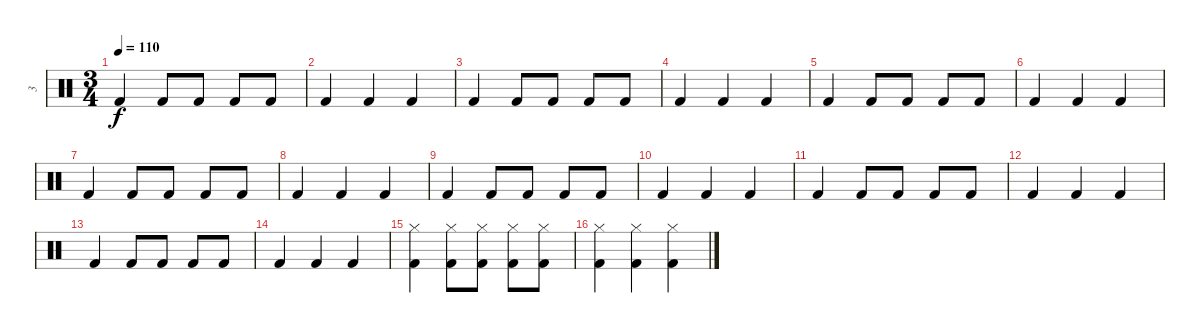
\track ("3" "3") {instrument percussion}
\staff {score}
\articulation defaults
\ts (3 4)
\tempo 110
\clef neutral
\ks c "Kick (hit) 2".4{dy f} "Kick (hit) 2".8 "Kick (hit) 2".8 "Kick (hit) 2".8 "Kick (hit) 2".8
|
"Kick (hit) 2".4 "Kick (hit) 2".4 "Kick (hit) 2".4 |
"Kick (hit) 2".4 "Kick (hit) 2".8 "Kick (hit) 2".8 "Kick (hit) 2".8 "Kick (hit) 2".8 |
"Kick (hit) 2".4 "Kick (hit) 2".4 "Kick (hit) 2".4 |
"Kick (hit) 2".4 "Kick (hit) 2".8 "Kick (hit) 2".8 "Kick (hit) 2".8 "Kick (hit) 2".8 |
"Kick (hit) 2".4 "Kick (hit) 2".4 "Kick (hit) 2".4 |
"Kick (hit) 2".4 "Kick (hit) 2".8 "Kick (hit) 2".8 "Kick (hit) 2".8 "Kick (hit) 2".8 |
"Kick (hit) 2".4 "Kick (hit) 2".4 "Kick (hit) 2".4 |
"Kick (hit) 2".4 "Kick (hit) 2".8 "Kick (hit) 2".8 "Kick (hit) 2".8 "Kick (hit) 2".8 |
"Kick (hit) 2".4 "Kick (hit) 2".4 "Kick (hit) 2".4 |
"Kick (hit) 2".4 "Kick (hit) 2".8 "Kick (hit) 2".8 "Kick (hit) 2".8 "Kick (hit) 2".8 |
"Kick (hit) 2".4 "Kick (hit) 2".4 "Kick (hit) 2".4 |
"Kick (hit) 2".4 "Kick (hit) 2".8 "Kick (hit) 2".8 "Kick (hit) 2".8 "Kick (hit) 2".8 |
"Kick (hit) 2".4 "Kick (hit) 2".4 "Kick (hit) 2".4 |
("Hi-Hat (closed)" "Kick (hit) 2").4 ("Hi-Hat (closed)" "Kick (hit) 2").8 ("Hi-Hat (closed)" "Kick (hit) 2").8 ("Hi-Hat (closed)" "Kick (hit) 2").8 ("Hi-Hat (closed)" "Kick (hit) 2").8 |
("Hi-Hat (closed)" "Kick (hit) 2").4 ("Hi-Hat (closed)" "Kick (hit) 2").4 ("Hi-Hat (closed)" "Kick (hit) 2").4
